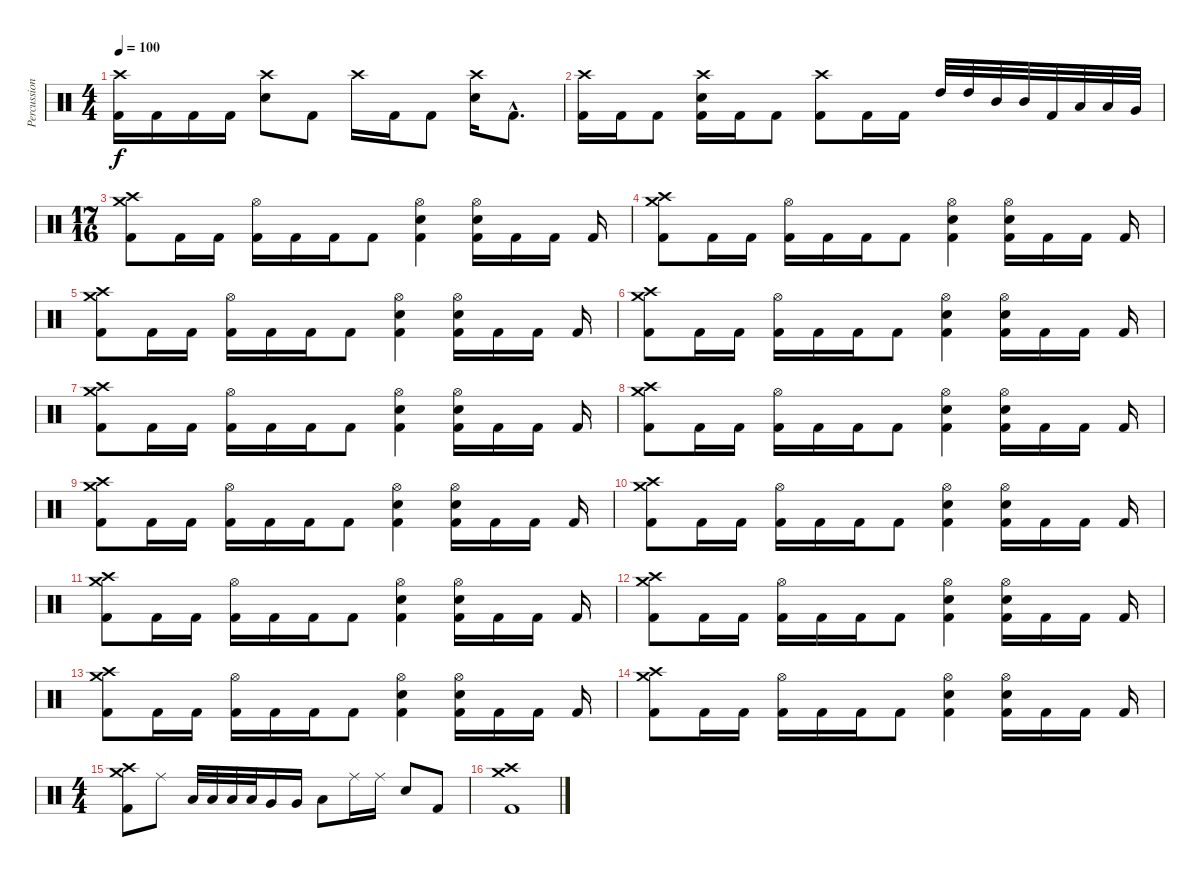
\track ("Percussion" "Percussion") {instrument percussion}
\staff {score}
\articulation defaults
\ts (4 4)
\tempo 100
\clef neutral
\ks c
("Crash high (hit)" "Kick (hit) 2").16{dy f} "Kick (hit) 2".16 "Kick (hit) 2".16 "Kick (hit) 2".16 ("Crash high (hit)" "Snare (hit) 2").8 "Kick (hit) 2".8 "Crash high (hit)".16 "Kick (hit) 2".16 "Kick (hit) 2".8 ("Crash high (hit)" "Snare (hit) 2").16 "Kick (hit) 2"{hac}.8{d} |
("Crash high (hit)" "Kick (hit) 2").16 "Kick (hit) 2".16 "Kick (hit) 2".8 ("Crash high (hit)" "Snare (hit) 2" "Kick (hit) 2").16 "Kick (hit) 2".16 "Kick (hit) 2".8 ("Crash high (hit)" "Kick (hit) 2").8 "Kick (hit) 2".16 "Kick (hit) 2".16 "High Tom (hit)".32 "High Tom (hit)".32 "Mid Tom (hit)".32 "Mid Tom (hit)".32 "Kick (hit) 2".32 "Low Tom (hit)".32 "Low Tom (hit)".32 "Very Low Tom (hit)".32 |
\ts (17 16)
("Crash high (hit)" "Crash medium (hit)" "Kick (hit) 2").8 "Kick (hit) 2".16 "Kick (hit) 2".16 ("Hi-Hat (open)" "Kick (hit) 2").16 "Kick (hit) 2".16 "Kick (hit) 2".16 "Kick (hit) 2".8 ("Hi-Hat (open)" "Snare (hit) 2" "Kick (hit) 2").4 ("Hi-Hat (open)" "Snare (hit) 2" "Kick (hit) 2").16 "Kick (hit) 2".16 "Kick (hit) 2".16 "Kick (hit) 2".16 |
("Crash high (hit)" "Crash medium (hit)" "Kick (hit) 2").8 "Kick (hit) 2".16 "Kick (hit) 2".16 ("Hi-Hat (open)" "Kick (hit) 2").16 "Kick (hit) 2".16 "Kick (hit) 2".16 "Kick (hit) 2".8 ("Hi-Hat (open)" "Snare (hit) 2" "Kick (hit) 2").4 ("Hi-Hat (open)" "Snare (hit) 2" "Kick (hit) 2").16 "Kick (hit) 2".16 "Kick (hit) 2".16 "Kick (hit) 2".16 |
("Crash high (hit)" "Crash medium (hit)" "Kick (hit) 2").8 "Kick (hit) 2".16 "Kick (hit) 2".16 ("Hi-Hat (open)" "Kick (hit) 2").16 "Kick (hit) 2".16 "Kick (hit) 2".16 "Kick (hit) 2".8 ("Hi-Hat (open)" "Snare (hit) 2" "Kick (hit) 2").4 ("Hi-Hat (open)" "Snare (hit) 2" "Kick (hit) 2").16 "Kick (hit) 2".16 "Kick (hit) 2".16 "Kick (hit) 2".16 |
("Crash high (hit)" "Crash medium (hit)" "Kick (hit) 2").8 "Kick (hit) 2".16 "Kick (hit) 2".16 ("Hi-Hat (open)" "Kick (hit) 2").16 "Kick (hit) 2".16 "Kick (hit) 2".16 "Kick (hit) 2".8 ("Hi-Hat (open)" "Snare (hit) 2" "Kick (hit) 2").4 ("Hi-Hat (open)" "Snare (hit) 2" "Kick (hit) 2").16 "Kick (hit) 2".16 "Kick (hit) 2".16 "Kick (hit) 2".16 |
("Crash high (hit)" "Crash medium (hit)" "Kick (hit) 2").8 "Kick (hit) 2".16 "Kick (hit) 2".16 ("Hi-Hat (open)" "Kick (hit) 2").16 "Kick (hit) 2".16 "Kick (hit) 2".16 "Kick (hit) 2".8 ("Hi-Hat (open)" "Snare (hit) 2" "Kick (hit) 2").4 ("Hi-Hat (open)" "Snare (hit) 2" "Kick (hit) 2").16 "Kick (hit) 2".16 "Kick (hit) 2".16 "Kick (hit) 2".16 |
("Crash high (hit)" "Crash medium (hit)" "Kick (hit) 2").8 "Kick (hit) 2".16 "Kick (hit) 2".16 ("Hi-Hat (open)" "Kick (hit) 2").16 "Kick (hit) 2".16 "Kick (hit) 2".16 "Kick (hit) 2".8 ("Hi-Hat (open)" "Snare (hit) 2" "Kick (hit) 2").4 ("Hi-Hat (open)" "Snare (hit) 2" "Kick (hit) 2").16 "Kick (hit) 2".16 "Kick (hit) 2".16 "Kick (hit) 2".16 |
("Crash high (hit)" "Crash medium (hit)" "Kick (hit) 2").8 "Kick (hit) 2".16 "Kick (hit) 2".16 ("Hi-Hat (open)" "Kick (hit) 2").16 "Kick (hit) 2".16 "Kick (hit) 2".16 "Kick (hit) 2".8 ("Hi-Hat (open)" "Snare (hit) 2" "Kick (hit) 2").4 ("Hi-Hat (open)" "Snare (hit) 2" "Kick (hit) 2").16 "Kick (hit) 2".16 "Kick (hit) 2".16 "Kick (hit) 2".16 |
("Crash high (hit)" "Crash medium (hit)" "Kick (hit) 2").8 "Kick (hit) 2".16 "Kick (hit) 2".16 ("Hi-Hat (open)" "Kick (hit) 2").16 "Kick (hit) 2".16 "Kick (hit) 2".16 "Kick (hit) 2".8 ("Hi-Hat (open)" "Snare (hit) 2" "Kick (hit) 2").4 ("Hi-Hat (open)" "Snare (hit) 2" "Kick (hit) 2").16 "Kick (hit) 2".16 "Kick (hit) 2".16 "Kick (hit) 2".16 |
("Crash high (hit)" "Crash medium (hit)" "Kick (hit) 2").8 "Kick (hit) 2".16 "Kick (hit) 2".16 ("Hi-Hat (open)" "Kick (hit) 2").16 "Kick (hit) 2".16 "Kick (hit) 2".16 "Kick (hit) 2".8 ("Hi-Hat (open)" "Snare (hit) 2" "Kick (hit) 2").4 ("Hi-Hat (open)" "Snare (hit) 2" "Kick (hit) 2").16 "Kick (hit) 2".16 "Kick (hit) 2".16 "Kick (hit) 2".16 |
("Crash high (hit)" "Crash medium (hit)" "Kick (hit) 2").8 "Kick (hit) 2".16 "Kick (hit) 2".16 ("Hi-Hat (open)" "Kick (hit) 2").16 "Kick (hit) 2".16 "Kick (hit) 2".16 "Kick (hit) 2".8 ("Hi-Hat (open)" "Snare (hit) 2" "Kick (hit) 2").4 ("Hi-Hat (open)" "Snare (hit) 2" "Kick (hit) 2").16 "Kick (hit) 2".16 "Kick (hit) 2".16 "Kick (hit) 2".16 |
("Crash high (hit)" "Crash medium (hit)" "Kick (hit) 2").8 "Kick (hit) 2".16 "Kick (hit) 2".16 ("Hi-Hat (open)" "Kick (hit) 2").16 "Kick (hit) 2".16 "Kick (hit) 2".16 "Kick (hit) 2".8 ("Hi-Hat (open)" "Snare (hit) 2" "Kick (hit) 2").4 ("Hi-Hat (open)" "Snare (hit) 2" "Kick (hit) 2").16 "Kick (hit) 2".16 "Kick (hit) 2".16 "Kick (hit) 2".16 |
("Crash high (hit)" "Crash medium (hit)" "Kick (hit) 2").8 "Kick (hit) 2".16 "Kick (hit) 2".16 ("Hi-Hat (open)" "Kick (hit) 2").16 "Kick (hit) 2".16 "Kick (hit) 2".16 "Kick (hit) 2".8 ("Hi-Hat (open)" "Snare (hit) 2" "Kick (hit) 2").4 ("Hi-Hat (open)" "Snare (hit) 2" "Kick (hit) 2").16 "Kick (hit) 2".16 "Kick (hit) 2".16 "Kick (hit) 2".16 |
\ts (4 4)
("Crash high (hit)" "Crash medium (hit)" "Kick (hit) 2").8 "Ride (middle)".8 "Low Tom (hit)".32 "Low Tom (hit)".32 "Low Tom (hit)".32 "Low Tom (hit)".32 "Very Low Tom (hit)".16 "Very Low Tom (hit)".16 "Low Tom (hit)".8 "Ride (middle)".16 "Ride (middle)".16 "Snare (hit) 2".8 "Kick (hit) 2".8 |
("Crash medium (hit)" "Crash high (hit)" "Kick (hit) 2").1
